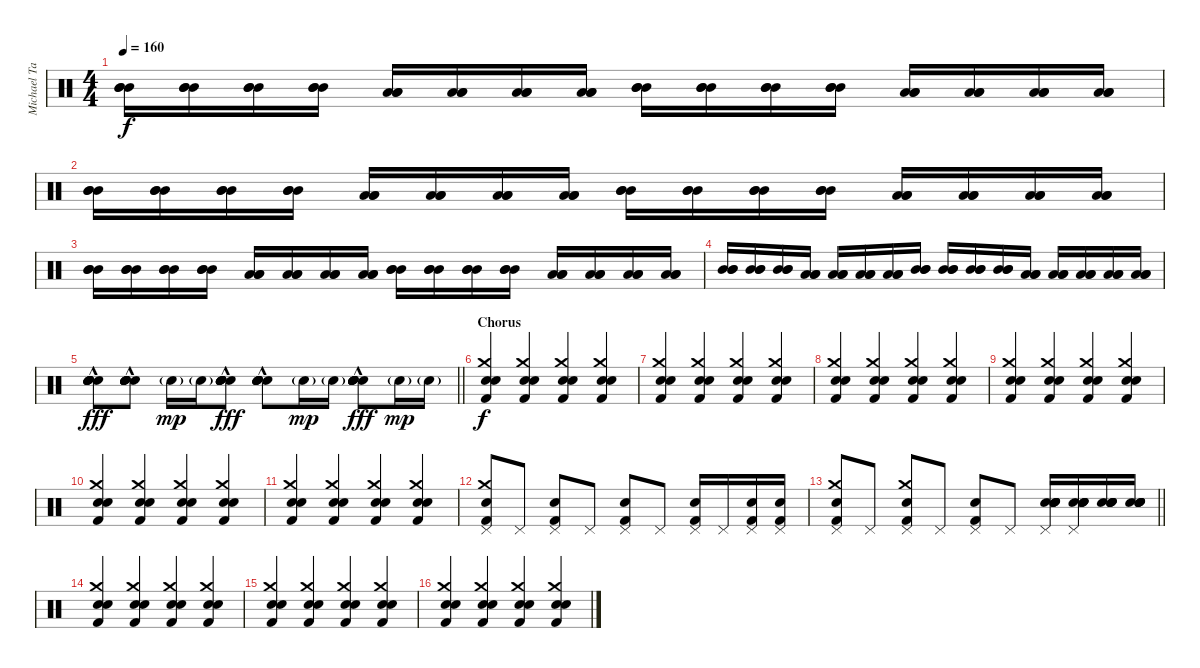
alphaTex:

\track ("Michael Tapper" "Michael Ta") {instrument percussion}
\staff {score}
\articulation defaults
\ts (4 4)
\tempo 160
\clef neutral
\ks c
("Mid Tom (hit)" "Mid Tom (hit)" "Mid Tom (hit)").16{dy f} ("Mid Tom (hit)" "Mid Tom (hit)" "Mid Tom (hit)").16 ("Mid Tom (hit)" "Mid Tom (hit)" "Mid Tom (hit)").16 ("Mid Tom (hit)" "Mid Tom (hit)" "Mid Tom (hit)").16 ("Low Tom (hit)" "Low Tom (hit)" "Low Tom (hit)").16 ("Low Tom (hit)" "Low Tom (hit)" "Low Tom (hit)").16 ("Low Tom (hit)" "Low Tom (hit)" "Low Tom (hit)").16 ("Low Tom (hit)" "Low Tom (hit)" "Low Tom (hit)").16 ("Mid Tom (hit)" "Mid Tom (hit)" "Mid Tom (hit)").16 ("Mid Tom (hit)" "Mid Tom (hit)" "Mid Tom (hit)").16 ("Mid Tom (hit)" "Mid Tom (hit)" "Mid Tom (hit)").16 ("Mid Tom (hit)" "Mid Tom (hit)" "Mid Tom (hit)").16 ("Low Tom (hit)" "Low Tom (hit)" "Low Tom (hit)").16 ("Low Tom (hit)" "Low Tom (hit)" "Low Tom (hit)").16 ("Low Tom (hit)" "Low Tom (hit)" "Low Tom (hit)").16 ("Low Tom (hit)" "Low Tom (hit)" "Low Tom (hit)").16 |
("Mid Tom (hit)" "Mid Tom (hit)" "Mid Tom (hit)").16 ("Mid Tom (hit)" "Mid Tom (hit)" "Mid Tom (hit)").16 ("Mid Tom (hit)" "Mid Tom (hit)" "Mid Tom (hit)").16 ("Mid Tom (hit)" "Mid Tom (hit)" "Mid Tom (hit)").16 ("Low Tom (hit)" "Low Tom (hit)" "Low Tom (hit)").16 ("Low Tom (hit)" "Low Tom (hit)" "Low Tom (hit)").16 ("Low Tom (hit)" "Low Tom (hit)" "Low Tom (hit)").16 ("Low Tom (hit)" "Low Tom (hit)" "Low Tom (hit)").16 ("Mid Tom (hit)" "Mid Tom (hit)" "Mid Tom (hit)").16 ("Mid Tom (hit)" "Mid Tom (hit)" "Mid Tom (hit)").16 ("Mid Tom (hit)" "Mid Tom (hit)" "Mid Tom (hit)").16 ("Mid Tom (hit)" "Mid Tom (hit)" "Mid Tom (hit)").16 ("Low Tom (hit)" "Low Tom (hit)" "Low Tom (hit)").16 ("Low Tom (hit)" "Low Tom (hit)" "Low Tom (hit)").16 ("Low Tom (hit)" "Low Tom (hit)" "Low Tom (hit)").16 ("Low Tom (hit)" "Low Tom (hit)" "Low Tom (hit)").16 |
("Mid Tom (hit)" "Mid Tom (hit)" "Mid Tom (hit)").16 ("Mid Tom (hit)" "Mid Tom (hit)" "Mid Tom (hit)").16 ("Mid Tom (hit)" "Mid Tom (hit)" "Mid Tom (hit)").16 ("Mid Tom (hit)" "Mid Tom (hit)" "Mid Tom (hit)").16 ("Low Tom (hit)" "Low Tom (hit)" "Low Tom (hit)").16 ("Low Tom (hit)" "Low Tom (hit)" "Low Tom (hit)").16 ("Low Tom (hit)" "Low Tom (hit)" "Low Tom (hit)").16 ("Low Tom (hit)" "Low Tom (hit)" "Low Tom (hit)").16 ("Mid Tom (hit)" "Mid Tom (hit)" "Mid Tom (hit)").16 ("Mid Tom (hit)" "Mid Tom (hit)" "Mid Tom (hit)").16 ("Mid Tom (hit)" "Mid Tom (hit)" "Mid Tom (hit)").16 ("Mid Tom (hit)" "Mid Tom (hit)" "Mid Tom (hit)").16 ("Low Tom (hit)" "Low Tom (hit)" "Low Tom (hit)").16 ("Low Tom (hit)" "Low Tom (hit)" "Low Tom (hit)").16 ("Low Tom (hit)" "Low Tom (hit)" "Low Tom (hit)").16 ("Low Tom (hit)" "Low Tom (hit)" "Low Tom (hit)").16 |
("Mid Tom (hit)" "Mid Tom (hit)" "Mid Tom (hit)").16 ("Mid Tom (hit)" "Mid Tom (hit)" "Mid Tom (hit)").16 ("Mid Tom (hit)" "Mid Tom (hit)" "Mid Tom (hit)").16 ("Low Tom (hit)" "Low Tom (hit)" "Low Tom (hit)").16 ("Low Tom (hit)" "Low Tom (hit)" "Low Tom (hit)").16 ("Low Tom (hit)" "Low Tom (hit)" "Low Tom (hit)").16 ("Low Tom (hit)" "Low Tom (hit)" "Low Tom (hit)").16 ("Mid Tom (hit)" "Mid Tom (hit)" "Mid Tom (hit)").16 ("Mid Tom (hit)" "Mid Tom (hit)" "Mid Tom (hit)").16 ("Mid Tom (hit)" "Mid Tom (hit)" "Mid Tom (hit)").16 ("Mid Tom (hit)" "Mid Tom (hit)" "Mid Tom (hit)").16 ("Low Tom (hit)" "Low Tom (hit)" "Low Tom (hit)").16 ("Low Tom (hit)" "Low Tom (hit)" "Low Tom (hit)").16 ("Low Tom (hit)" "Low Tom (hit)" "Low Tom (hit)").16 ("Low Tom (hit)" "Low Tom (hit)" "Low Tom (hit)").16 ("Low Tom (hit)" "Low Tom (hit)" "Low Tom (hit)").16 |
\barLineRight lightlight
("Electric Snare (hit)"{hac} "Electric Snare (hit)"{hac} "Electric Snare (hit)"{hac} "Electric Snare (hit)" "Electric Snare (hit)"{hac} "Electric Snare (hit)"{hac}).8{dy fff} ("Electric Snare (hit)"{hac} "Electric Snare (hit)"{hac} "Electric Snare (hit)"{hac} "Electric Snare (hit)"{hac} "Electric Snare (hit)"{hac} "Electric Snare (hit)"{hac}).8 "Electric Snare (hit)"{g}.16{dy mp} "Electric Snare (hit)"{g}.16 ("Electric Snare (hit)"{hac} "Electric Snare (hit)"{hac} "Electric Snare (hit)"{hac} "Electric Snare (hit)"{hac} "Electric Snare (hit)"{hac} "Electric Snare (hit)"{hac}).8{dy fff} ("Electric Snare (hit)"{hac} "Electric Snare (hit)"{hac} "Electric Snare (hit)"{hac} "Electric Snare (hit)"{hac} "Electric Snare (hit)"{hac} "Electric Snare (hit)"{hac}).8 "Electric Snare (hit)"{g}.16{dy mp} "Electric Snare (hit)"{g}.16 ("Electric Snare (hit)"{hac} "Electric Snare (hit)"{hac} "Electric Snare (hit)"{hac} "Electric Snare (hit)"{hac} "Electric Snare (hit)"{hac} "Electric Snare (hit)"{hac}).8{dy fff} "Electric Snare (hit)"{g}.16{dy mp} "Electric Snare (hit)"{g}.16 |
\section ("" "Chorus")
("Crash medium (hit)" "Electric Snare (hit)" "Electric Snare (hit)" "Kick (hit) 2").4{dy f volume 16} ("Crash medium (hit)" "Electric Snare (hit)" "Electric Snare (hit)" "Kick (hit) 2").4 ("Crash medium (hit)" "Electric Snare (hit)" "Electric Snare (hit)" "Kick (hit) 2").4 ("Crash medium (hit)" "Electric Snare (hit)" "Electric Snare (hit)" "Kick (hit) 2").4 |
("Crash medium (hit)" "Electric Snare (hit)" "Electric Snare (hit)" "Kick (hit) 2").4 ("Crash medium (hit)" "Electric Snare (hit)" "Electric Snare (hit)" "Kick (hit) 2").4 ("Crash medium (hit)" "Electric Snare (hit)" "Electric Snare (hit)" "Kick (hit) 2").4 ("Crash medium (hit)" "Electric Snare (hit)" "Electric Snare (hit)" "Kick (hit) 2").4 |
("Crash medium (hit)" "Electric Snare (hit)" "Electric Snare (hit)" "Kick (hit) 2").4 ("Crash medium (hit)" "Electric Snare (hit)" "Electric Snare (hit)" "Kick (hit) 2").4 ("Crash medium (hit)" "Electric Snare (hit)" "Electric Snare (hit)" "Kick (hit) 2").4 ("Crash medium (hit)" "Electric Snare (hit)" "Electric Snare (hit)" "Kick (hit) 2").4 |
("Crash medium (hit)" "Electric Snare (hit)" "Electric Snare (hit)" "Kick (hit) 2").4 ("Crash medium (hit)" "Electric Snare (hit)" "Electric Snare (hit)" "Kick (hit) 2").4 ("Crash medium (hit)" "Electric Snare (hit)" "Electric Snare (hit)" "Kick (hit) 2").4 ("Crash medium (hit)" "Electric Snare (hit)" "Electric Snare (hit)" "Kick (hit) 2").4 |
("Crash medium (hit)" "Electric Snare (hit)" "Electric Snare (hit)" "Kick (hit) 2").4 ("Crash medium (hit)" "Electric Snare (hit)" "Electric Snare (hit)" "Kick (hit) 2").4 ("Crash medium (hit)" "Electric Snare (hit)" "Electric Snare (hit)" "Kick (hit) 2").4 ("Crash medium (hit)" "Electric Snare (hit)" "Electric Snare (hit)" "Kick (hit) 2").4 |
("Crash medium (hit)" "Electric Snare (hit)" "Electric Snare (hit)" "Kick (hit) 2").4 ("Crash medium (hit)" "Electric Snare (hit)" "Electric Snare (hit)" "Kick (hit) 2").4 ("Crash medium (hit)" "Electric Snare (hit)" "Electric Snare (hit)" "Kick (hit) 2").4 ("Crash medium (hit)" "Electric Snare (hit)" "Electric Snare (hit)" "Kick (hit) 2").4 |
("Crash medium (hit)" "Pedal Hi-Hat (hit)" "Electric Snare (hit)" "Kick (hit) 2").8 "Pedal Hi-Hat (hit)".8 ("Pedal Hi-Hat (hit)" "Electric Snare (hit)" "Kick (hit) 2").8 "Pedal Hi-Hat (hit)".8 ("Pedal Hi-Hat (hit)" "Electric Snare (hit)" "Kick (hit) 2").8 "Pedal Hi-Hat (hit)".8 ("Pedal Hi-Hat (hit)" "Electric Snare (hit)" "Kick (hit) 2").16 "Pedal Hi-Hat (hit)".16 ("Pedal Hi-Hat (hit)" "Electric Snare (hit)" "Kick (hit) 2").16 ("Pedal Hi-Hat (hit)" "Electric Snare (hit)" "Kick (hit) 2").16 |
\barLineRight lightlight
("Crash medium (hit)" "Pedal Hi-Hat (hit)" "Electric Snare (hit)" "Kick (hit) 2").8 "Pedal Hi-Hat (hit)".8 ("Crash medium (hit)" "Pedal Hi-Hat (hit)" "Electric Snare (hit)" "Kick (hit) 2").8 "Pedal Hi-Hat (hit)".8 ("Pedal Hi-Hat (hit)" "Electric Snare (hit)" "Kick (hit) 2").8 "Pedal Hi-Hat (hit)".8 ("Pedal Hi-Hat (hit)" "Electric Snare (hit)" "Electric Snare (hit)" "Electric Snare (hit)" "Electric Snare (hit)" "Electric Snare (hit)").16 ("Pedal Hi-Hat (hit)" "Electric Snare (hit)" "Electric Snare (hit)" "Electric Snare (hit)" "Electric Snare (hit)" "Electric Snare (hit)").16 ("Electric Snare (hit)" "Electric Snare (hit)" "Electric Snare (hit)" "Electric Snare (hit)" "Electric Snare (hit)").16 ("Electric Snare (hit)" "Electric Snare (hit)" "Electric Snare (hit)" "Electric Snare (hit)" "Electric Snare (hit)").16 |
("Crash medium (hit)" "Electric Snare (hit)" "Electric Snare (hit)" "Kick (hit) 2").4 ("Crash medium (hit)" "Electric Snare (hit)" "Electric Snare (hit)" "Kick (hit) 2").4 ("Crash medium (hit)" "Electric Snare (hit)" "Electric Snare (hit)" "Kick (hit) 2").4 ("Crash medium (hit)" "Electric Snare (hit)" "Electric Snare (hit)" "Kick (hit) 2").4 |
("Crash medium (hit)" "Electric Snare (hit)" "Electric Snare (hit)" "Kick (hit) 2").4 ("Crash medium (hit)" "Electric Snare (hit)" "Electric Snare (hit)" "Kick (hit) 2").4 ("Crash medium (hit)" "Electric Snare (hit)" "Electric Snare (hit)" "Kick (hit) 2").4 ("Crash medium (hit)" "Electric Snare (hit)" "Electric Snare (hit)" "Kick (hit) 2").4 |
("Crash medium (hit)" "Electric Snare (hit)" "Electric Snare (hit)" "Kick (hit) 2").4 ("Crash medium (hit)" "Electric Snare (hit)" "Electric Snare (hit)" "Kick (hit) 2").4 ("Crash medium (hit)" "Electric Snare (hit)" "Electric Snare (hit)" "Kick (hit) 2").4 ("Crash medium (hit)" "Electric Snare (hit)" "Electric Snare (hit)" "Kick (hit) 2").4
